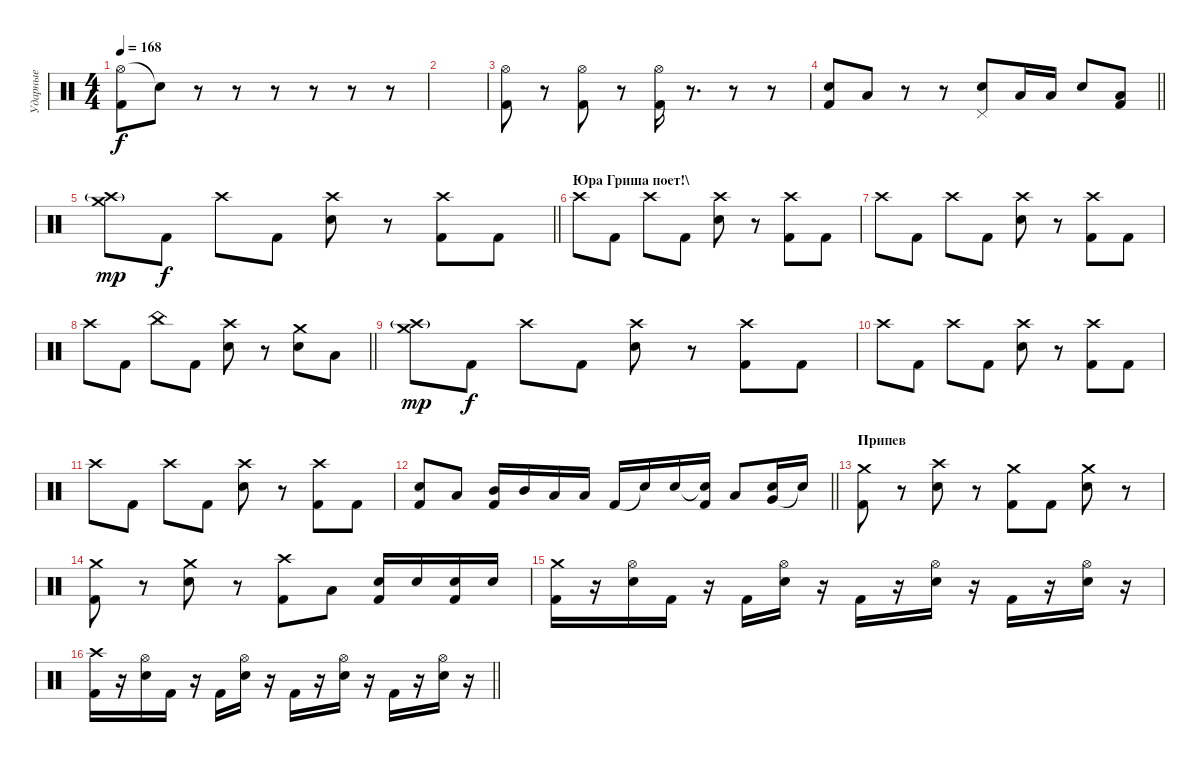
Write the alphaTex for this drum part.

\track ("Ударные" "Ударные") {instrument percussion}
\staff {score}
\articulation defaults
\ts (4 4)
\tempo 168
\clef neutral
\ks c
("Hi-Hat (open)" "Kick (hit) 2").8{dy f} "Snare (hit)"{t}.8 r.8 r.8 r.8 r.8 r.8 r.8 |
|
("Hi-Hat (open)" "Kick (hit) 2").8 r.8 ("Hi-Hat (open)" "Kick (hit) 2").8 r.8 ("Hi-Hat (open)" "Kick (hit) 2").16 r.8{d} r.8 r.8 |
\barLineRight lightlight
("Snare (hit) 2" "Kick (hit) 2").8 "Low Floor Tom (hit)".8 r.8 r.8 ("Pedal Hi-Hat (hit)" "Snare (hit) 2").8 "Low Tom (hit)".16 "Low Tom (hit)".16 "Snare (hit) 2".8 ("Low Floor Tom (hit)" "Kick (hit) 2").8 |
\barLineRight lightlight
("Crash medium (hit)" "Crash high (hit)"{g}).8{dy mp} "Kick (hit) 2".8{dy f} "Crash high (hit)".8 "Kick (hit) 2".8 ("Crash high (hit)" "Snare (hit) 2").8 r.8 ("Crash high (hit)" "Kick (hit) 2").8 "Kick (hit) 2".8 |
\section ("" "Юра Гриша поет!\\")
"Crash high (hit)".8 "Kick (hit) 2".8 "Crash high (hit)".8 "Kick (hit) 2".8 ("Crash high (hit)" "Snare (hit) 2").8 r.8 ("Crash high (hit)" "Kick (hit) 2").8 "Kick (hit) 2".8 |
"Crash high (hit)".8 "Kick (hit) 2".8 "Crash high (hit)".8 "Kick (hit) 2".8 ("Crash high (hit)" "Snare (hit) 2").8 r.8 ("Crash high (hit)" "Kick (hit) 2").8 "Kick (hit) 2".8 |
\barLineRight lightlight "Crash high (hit)".8 "Kick (hit) 2".8 "China (hit)".8 "Kick (hit) 2".8
("Crash high (hit)" "Snare (hit) 2").8 r.8 ("Crash medium (hit)" "Snare (hit) 2").8 "Low Tom (hit)".8 |
("Crash medium (hit)" "Crash high (hit)"{g}).8{dy mp} "Kick (hit) 2".8{dy f} "Crash high (hit)".8 "Kick (hit) 2".8 ("Crash high (hit)" "Snare (hit) 2").8 r.8 ("Crash high (hit)" "Kick (hit) 2").8 "Kick (hit) 2".8 |
"Crash high (hit)".8 "Kick (hit) 2".8 "Crash high (hit)".8 "Kick (hit) 2".8 ("Crash high (hit)" "Snare (hit) 2").8 r.8 ("Crash high (hit)" "Kick (hit) 2").8 "Kick (hit) 2".8 |
"Crash high (hit)".8 "Kick (hit) 2".8 "Crash high (hit)".8 "Kick (hit) 2".8 ("Crash high (hit)" "Snare (hit) 2").8 r.8 ("Crash high (hit)" "Kick (hit) 2").8 "Kick (hit) 2".8 |
\barLineRight lightlight
("Snare (hit) 2" "Kick (hit) 2").8 "Low Tom (hit)".8 ("Mid Tom (hit)" "Kick (hit) 2").16 "Mid Tom (hit)".16 "Low Tom (hit)".16 "Low Tom (hit)".16 "Kick (hit) 2".16 "Snare (hit)"{t}.16 "Snare (hit) 2".16 ("Snare (hit)"{t} "Kick (hit) 2").16 "Low Floor Tom (hit)".8 ("Very Low Tom (hit)" "Snare (hit) 2").16 "Snare (hit)"{t}.16 |
\section ("" "Припев")
("Crash medium (hit)" "Kick (hit) 2").8 r.8 ("Crash high (hit)" "Snare (hit) 2").8 r.8 ("Crash medium (hit)" "Kick (hit) 2").8 "Kick (hit) 2".8 ("Crash medium (hit)" "Snare (hit) 2").8 r.8 |
("Crash medium (hit)" "Kick (hit) 2").8 r.8 ("Crash medium (hit)" "Snare (hit) 2").8 r.8 ("Crash high (hit)" "Kick (hit) 2").8 "Low Tom (hit)".8 ("Snare (hit) 2" "Kick (hit) 2").16 "Snare (hit) 2".16 ("Snare (hit) 2" "Kick (hit) 2").16 "Snare (hit) 2".16 |
("Crash medium (hit)" "Kick (hit) 2").16 r.16 ("Hi-Hat (open)" "Snare (hit) 2").16 "Kick (hit) 2".16 r.16 "Kick (hit) 2".16 ("Hi-Hat (open)" "Snare (hit) 2").16 r.16 "Kick (hit) 2".16 r.16 ("Hi-Hat (open)" "Snare (hit) 2").16 r.16 "Kick (hit) 2".16 r.16 ("Hi-Hat (open)" "Snare (hit) 2").16 r.16 |
\barLineRight lightlight
("Crash high (hit)" "Kick (hit) 2").16 r.16 ("Hi-Hat (open)" "Snare (hit) 2").16 "Kick (hit) 2".16 r.16 "Kick (hit) 2".16 ("Hi-Hat (open)" "Snare (hit) 2").16 r.16 "Kick (hit) 2".16 r.16 ("Hi-Hat (open)" "Snare (hit) 2").16 r.16 "Kick (hit) 2".16 r.16 ("Hi-Hat (open)" "Snare (hit) 2").16 r.16
